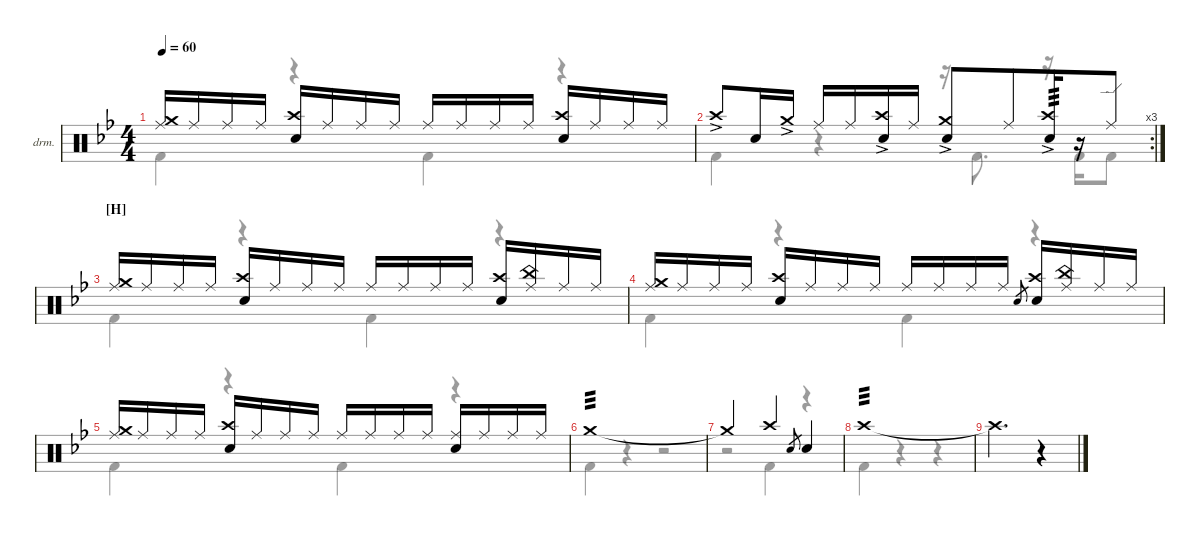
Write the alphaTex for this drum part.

\defaultSystemsLayout 4
\hideDynamics
\bracketExtendMode nobrackets
\firstSystemTrackNameOrientation horizontal
\otherSystemsTrackNameOrientation horizontal
\track ("Drumkit" "drm.") {instrument percussion}
\staff {score}
\articulation defaults
\voice
\ts (4 4)
\tempo 60
\clef neutral
\ks bb
("Crash medium (hit)"{acc forcenatural} "Ride (middle)"{acc forcenatural}).16{dy mf beam Up} "Ride (middle)"{acc forcenatural}.16{dy mp beam Up} "Ride (middle)"{acc forcenatural}.16{dy mf beam Up} "Ride (middle)"{acc forcenatural}.16{dy mp beam Up} ("Snare (hit) 2"{acc forcenatural} "Crash high (hit)"{acc forcenatural}).16{dy mf beam Up} "Ride (middle)"{acc forcenatural}.16{dy mp beam Up} "Ride (middle)"{acc forcenatural}.16{beam Up} "Ride (middle)"{acc forcenatural}.16{dy mf beam Up} "Ride (middle)"{acc forcenatural}.16{beam Up} "Ride (middle)"{acc forcenatural}.16{dy mp beam Up} "Ride (middle)"{acc forcenatural}.16{dy mf beam Up} "Ride (middle)"{acc forcenatural}.16{dy mp beam Up} ("Snare (hit) 2"{acc forcenatural} "Crash high (hit)"{acc forcenatural}).16{dy mf beam Up} "Ride (middle)"{acc forcenatural}.16{dy mp beam Up} "Ride (middle)"{acc forcenatural}.16{beam Up} "Ride (middle)"{acc forcenatural}.16{dy mf beam Up} |
\rc 3 "Crash high (hit)"{ac acc forcenatural}.8{dy mp beam Up} "Snare (hit) 2"{acc forcenatural}.16{beam Up} "Crash medium (hit)"{ac acc forcenatural}.16{beam Up} "Ride (middle)"{acc forcenatural}.16{beam Up} "Ride (middle)"{acc forcenatural}.16{beam Up}
("Snare (hit) 2"{acc forcenatural} "Crash high (hit)"{ac acc forcenatural}).16{beam Up} "Ride (middle)"{acc forcenatural}.16{beam Up} ("Crash medium (hit)"{ac acc forcenatural} "Snare (hit) 2"{acc forcenatural}).8{beam Up} "Ride (middle)"{acc forcenatural}.8{beam Up beam merge} ("Crash high (hit)"{ac acc forcenatural} "Snare (hit) 2"{acc forcenatural}).16{tp 3 beam Up} r.16{beam Up} "Ride (edge)"{acc forcenatural}.8{beam Up} |
\section ("H" "")
("Crash medium (hit)"{acc forcenatural} "Ride (middle)"{acc forcenatural}).16{dy mf beam Up} "Ride (middle)"{acc forcenatural}.16{dy mp beam Up} "Ride (middle)"{acc forcenatural}.16{dy mf beam Up} "Ride (middle)"{acc forcenatural}.16{dy mp beam Up} ("Snare (hit) 2"{acc forcenatural} "Crash high (hit)"{acc forcenatural}).16{dy mf beam Up} "Ride (middle)"{acc forcenatural}.16{dy mp beam Up} "Ride (middle)"{acc forcenatural}.16{beam Up} "Ride (middle)"{acc forcenatural}.16{dy mf beam Up} "Ride (middle)"{acc forcenatural}.16{beam Up} "Ride (middle)"{acc forcenatural}.16{dy mp beam Up} "Ride (middle)"{acc forcenatural}.16{dy mf beam Up} "Ride (middle)"{acc forcenatural}.16{dy mp beam Up} ("Snare (hit) 2"{acc forcenatural} "Crash high (hit)"{acc forcenatural}).16{dy mf beam Up} ("Ride (middle)"{acc forcenatural} "China (hit)"{acc forcenatural}).16{dy mp beam Up} "Ride (middle)"{acc forcenatural}.16{beam Up} "Ride (middle)"{acc forcenatural}.16{dy mf beam Up} |
("Crash medium (hit)"{acc forcenatural} "Ride (middle)"{acc forcenatural}).16{beam Up} "Ride (middle)"{acc forcenatural}.16{dy mp beam Up} "Ride (middle)"{acc forcenatural}.16{dy mf beam Up} "Ride (middle)"{acc forcenatural}.16{dy mp beam Up} ("Snare (hit) 2"{acc forcenatural} "Crash high (hit)"{acc forcenatural}).16{dy mf beam Up} "Ride (middle)"{acc forcenatural}.16{dy mp beam Up} "Ride (middle)"{acc forcenatural}.16{beam Up} "Ride (middle)"{acc forcenatural}.16{dy mf beam Up} "Ride (middle)"{acc forcenatural}.16{beam Up} "Ride (middle)"{acc forcenatural}.16{dy mp beam Up} "Ride (middle)"{acc forcenatural}.16{dy mf beam Up} "Ride (middle)"{acc forcenatural}.16{dy mp beam Up} "Snare (hit) 2"{acc forcenatural}.8{gr dy mf beam Up} ("Snare (hit) 2"{acc forcenatural} "Crash high (hit)"{acc forcenatural}).16{beam Up} ("Ride (middle)"{acc forcenatural} "China (hit)"{acc forcenatural}).16{dy mp beam Up} "Ride (middle)"{acc forcenatural}.16{beam Up} "Ride (middle)"{acc forcenatural}.16{dy mf beam Up} |
("Crash medium (hit)"{acc forcenatural} "Ride (middle)"{acc forcenatural}).16{beam Up} "Ride (middle)"{acc forcenatural}.16{dy mp beam Up} "Ride (middle)"{acc forcenatural}.16{dy mf beam Up} "Ride (middle)"{acc forcenatural}.16{dy mp beam Up} ("Snare (hit) 2"{acc forcenatural} "Crash high (hit)"{acc forcenatural}).16{dy mf beam Up} "Ride (middle)"{acc forcenatural}.16{dy mp beam Up} "Ride (middle)"{acc forcenatural}.16{beam Up} "Ride (middle)"{acc forcenatural}.16{dy mf beam Up} "Ride (middle)"{acc forcenatural}.16{beam Up} "Ride (middle)"{acc forcenatural}.16{dy mp beam Up} "Ride (middle)"{acc forcenatural}.16{dy mf beam Up} "Ride (middle)"{acc forcenatural}.16{dy mp beam Up} ("Snare (hit) 2"{acc forcenatural} "Ride (middle)"{acc forcenatural}).16{dy mf beam Up} "Ride (middle)"{acc forcenatural}.16{dy mp beam Up} "Ride (middle)"{acc forcenatural}.16{beam Up} "Ride (middle)"{acc forcenatural}.16{dy mf beam Up} |
"Crash medium (hit)"{acc forcenatural}.1{tp 3 beam Up} |
"Crash medium (hit)"{t acc forcenatural}.2{beam Up} "Crash high (hit)"{acc forcenatural}.4{beam Up} "Snare (hit) 2"{acc forcenatural}.8{gr beam Up} "Snare (hit) 2"{acc forcenatural}.4{beam Up} |
"Crash high (hit)"{acc forcenatural}.1{tp 3 beam Up} |
"Crash high (hit)"{t acc forcenatural}.2{d beam Down} r.4{beam Down}
\voice
\clef neutral
\ottava regular
\simile none
\ks bb "Kick (hit) 2"{acc forcenatural}.4{dy mf beam Down}
r.4{beam Down} "Kick (hit) 2"{acc forcenatural}.4{beam Down} r.4{beam Down} |
"Kick (hit) 2"{acc forcenatural}.4{beam Down} r.4{beam Down} r.16{beam Down} "Kick (hit) 2"{acc forcenatural}.8{d beam Down} r.16{beam Down} "Kick (hit) 2"{acc forcenatural}.16{beam Down} "Kick (hit) 2"{acc forcenatural}.8{beam Down} |
"Kick (hit) 2"{acc forcenatural}.4{beam Down} r.4{beam Down} "Kick (hit) 2"{acc forcenatural}.4{beam Down} r.4{beam Down} |
"Kick (hit) 2"{acc forcenatural}.4{beam Down} r.4{beam Down} "Kick (hit) 2"{acc forcenatural}.4{beam Down} r.4{beam Down} |
"Kick (hit) 2"{acc forcenatural}.4{beam Down} r.4{beam Down} "Kick (hit) 2"{acc forcenatural}.4{beam Down} r.4{beam Down} |
"Kick (hit) 2"{acc forcenatural}.4{beam Down} r.4{beam Down} r.2{beam Down} |
r.2{beam Down} "Kick (hit) 2"{acc forcenatural}.4{beam Down} r.4{beam Down} |
"Kick (hit) 2"{acc forcenatural}.4{beam Down} r.4{beam Down} r.4{beam Down} |
